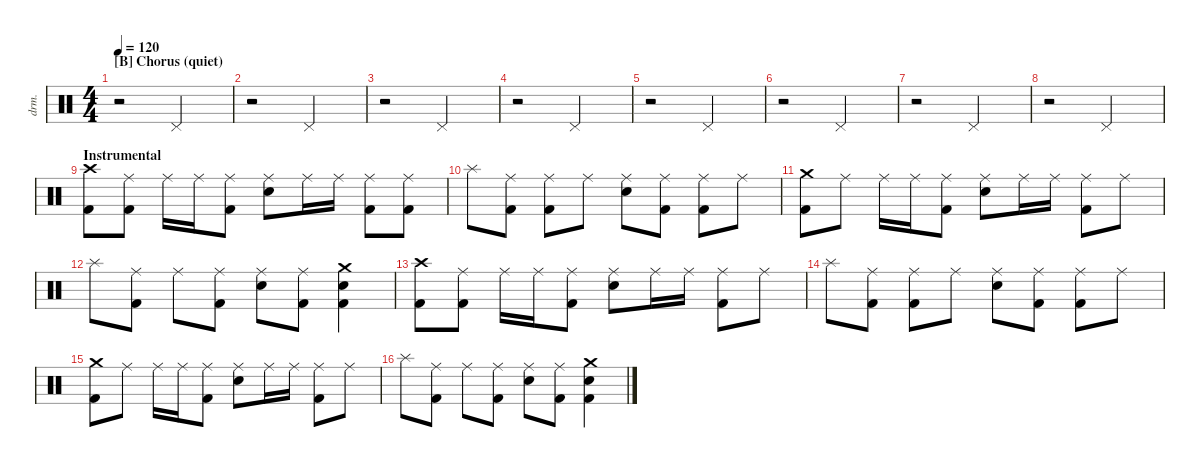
\defaultSystemsLayout 4
\hideDynamics
\bracketExtendMode nobrackets
\track ("Drumkit" "drm.") {instrument percussion}
\staff {score}
\articulation defaults
\ts (4 4)
\section ("B" "Chorus (quiet)")
\tempo 120
\clef neutral
\ks c
r.2{dy mf beam Down} "Pedal Hi-Hat (hit)".2{beam Up} |
r.2{beam Down} "Pedal Hi-Hat (hit)".2{beam Up} |
r.2{beam Down} "Pedal Hi-Hat (hit)".2{beam Up} |
r.2{beam Down} "Pedal Hi-Hat (hit)".2{beam Up} |
r.2{beam Down} "Pedal Hi-Hat (hit)".2{beam Up} |
r.2{beam Down} "Pedal Hi-Hat (hit)".2{beam Up} |
r.2{beam Down} "Pedal Hi-Hat (hit)".2{beam Up} |
r.2{beam Down} "Pedal Hi-Hat (hit)".2{beam Up} |
\section ("" "Instrumental")
("Crash high (hit)" "Kick (hit) 2").8{dy f beam Down} ("Ride (middle)" "Kick (hit) 2").8{beam Down} "Ride (middle)".16{beam Down} "Ride (middle)".16{beam Down} ("Ride (middle)" "Kick (hit) 2").8{beam Down} ("Ride (middle)" "Snare (hit) 2").8{beam Down} "Ride (middle)".16{beam Down} "Ride (middle)".16{beam Down} ("Ride (middle)" "Kick (hit) 2").8{beam Down} ("Ride (middle)" "Kick (hit) 2").8{beam Down} |
"Splash (hit)".8{beam Down} ("Ride (middle)" "Kick (hit) 2").8{beam Down} ("Ride (middle)" "Kick (hit) 2").8{beam Down} "Ride (middle)".8{beam Down} ("Ride (middle)" "Snare (hit) 2").8{beam Down} ("Ride (middle)" "Kick (hit) 2").8{beam Down} ("Ride (middle)" "Kick (hit) 2").8{beam Down} "Ride (middle)".8{beam Down} |
("Crash medium (hit)" "Kick (hit) 2").8{beam Down} "Ride (middle)".8{beam Down} "Ride (middle)".16{beam Down} "Ride (middle)".16{beam Down} ("Ride (middle)" "Kick (hit) 2").8{beam Down} ("Ride (middle)" "Snare (hit) 2").8{beam Down} "Ride (middle)".16{beam Down} "Ride (middle)".16{beam Down} ("Ride (middle)" "Kick (hit) 2").8{beam Down} "Ride (middle)".8{beam Down} |
"Splash (hit)".8{beam Down} ("Ride (middle)" "Kick (hit) 2").8{beam Down} "Ride (middle)".8{beam Down} ("Ride (middle)" "Kick (hit) 2").8{beam Down} ("Ride (middle)" "Snare (hit) 2").8{beam Down} ("Ride (middle)" "Kick (hit) 2").8{beam Down} ("Crash medium (hit)" "Kick (hit) 2" "Snare (hit) 2").4{beam Down} |
("Crash high (hit)" "Kick (hit) 2").8{beam Down} ("Ride (middle)" "Kick (hit) 2").8{beam Down} "Ride (middle)".16{beam Down} "Ride (middle)".16{beam Down} ("Ride (middle)" "Kick (hit) 2").8{beam Down} ("Ride (middle)" "Snare (hit) 2").8{beam Down} "Ride (middle)".16{beam Down} "Ride (middle)".16{beam Down} ("Ride (middle)" "Kick (hit) 2").8{beam Down} "Ride (middle)".8{beam Down} |
"Splash (hit)".8{beam Down} ("Ride (middle)" "Kick (hit) 2").8{beam Down} ("Ride (middle)" "Kick (hit) 2").8{beam Down} "Ride (middle)".8{beam Down} ("Ride (middle)" "Snare (hit) 2").8{beam Down} ("Ride (middle)" "Kick (hit) 2").8{beam Down} ("Ride (middle)" "Kick (hit) 2").8{beam Down} "Ride (middle)".8{beam Down} |
("Crash medium (hit)" "Kick (hit) 2").8{beam Down} "Ride (middle)".8{beam Down} "Ride (middle)".16{beam Down} "Ride (middle)".16{beam Down} ("Ride (middle)" "Kick (hit) 2").8{beam Down} ("Ride (middle)" "Snare (hit) 2").8{beam Down} "Ride (middle)".16{beam Down} "Ride (middle)".16{beam Down} ("Ride (middle)" "Kick (hit) 2").8{beam Down} "Ride (middle)".8{beam Down} |
"Splash (hit)".8{beam Down} ("Ride (middle)" "Kick (hit) 2").8{beam Down} "Ride (middle)".8{beam Down} ("Ride (middle)" "Kick (hit) 2").8{beam Down} ("Ride (middle)" "Snare (hit) 2").8{beam Down} ("Ride (middle)" "Kick (hit) 2").8{beam Down} ("Crash medium (hit)" "Kick (hit) 2" "Snare (hit) 2").4{beam Down}
